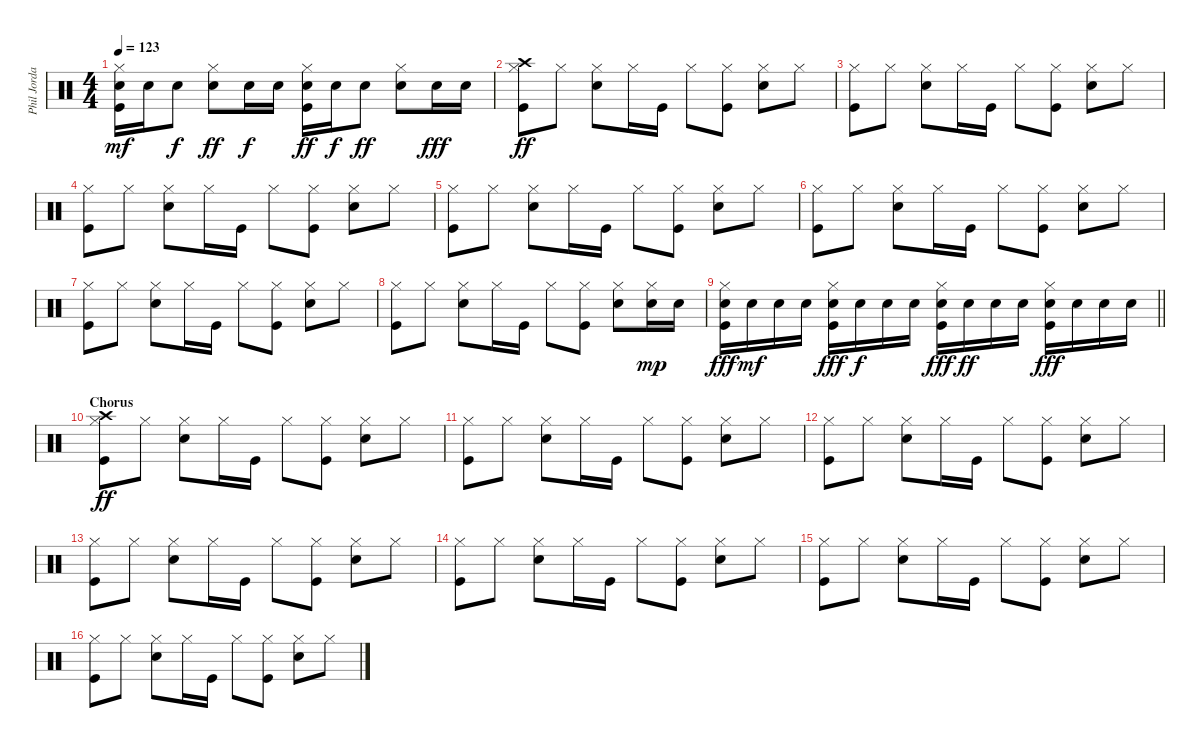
\track ("Phil Jordan" "Phil Jorda") {instrument percussion}
\staff {score}
\articulation defaults
\ts (4 4)
\tempo 123
\clef neutral
\ks c
("Hi-Hat (closed)" "Snare (hit) 2" "Kick (hit)").16{dy mf} "Snare (hit) 2".16 "Snare (hit) 2".8{dy f} ("Hi-Hat (closed)" "Snare (hit) 2").8{dy ff} "Snare (hit) 2".16{dy f} "Snare (hit) 2".16 ("Hi-Hat (closed)" "Snare (hit) 2" "Kick (hit)").16{dy ff} "Snare (hit) 2".16{dy f} "Snare (hit) 2".8{dy ff} ("Hi-Hat (closed)" "Snare (hit) 2").8 "Snare (hit) 2".16{dy fff} "Snare (hit) 2".16 |
("Crash high (hit)" "Hi-Hat (closed)" "Kick (hit)").8{dy ff} "Hi-Hat (closed)".8 ("Hi-Hat (closed)" "Snare (hit) 2").8 "Hi-Hat (closed)".16 "Kick (hit)".16 "Hi-Hat (closed)".8 ("Hi-Hat (closed)" "Kick (hit)").8 ("Hi-Hat (closed)" "Snare (hit) 2").8 "Hi-Hat (closed)".8 |
("Hi-Hat (closed)" "Kick (hit)").8 "Hi-Hat (closed)".8 ("Hi-Hat (closed)" "Snare (hit) 2").8 "Hi-Hat (closed)".16 "Kick (hit)".16 "Hi-Hat (closed)".8 ("Hi-Hat (closed)" "Kick (hit)").8 ("Hi-Hat (closed)" "Snare (hit) 2").8 "Hi-Hat (closed)".8 |
("Hi-Hat (closed)" "Kick (hit)").8 "Hi-Hat (closed)".8 ("Hi-Hat (closed)" "Snare (hit) 2").8 "Hi-Hat (closed)".16 "Kick (hit)".16 "Hi-Hat (closed)".8 ("Hi-Hat (closed)" "Kick (hit)").8 ("Hi-Hat (closed)" "Snare (hit) 2").8 "Hi-Hat (closed)".8 |
("Hi-Hat (closed)" "Kick (hit)").8 "Hi-Hat (closed)".8 ("Hi-Hat (closed)" "Snare (hit) 2").8 "Hi-Hat (closed)".16 "Kick (hit)".16 "Hi-Hat (closed)".8 ("Hi-Hat (closed)" "Kick (hit)").8 ("Hi-Hat (closed)" "Snare (hit) 2").8 "Hi-Hat (closed)".8 |
("Hi-Hat (closed)" "Kick (hit)").8 "Hi-Hat (closed)".8 ("Hi-Hat (closed)" "Snare (hit) 2").8 "Hi-Hat (closed)".16 "Kick (hit)".16 "Hi-Hat (closed)".8 ("Hi-Hat (closed)" "Kick (hit)").8 ("Hi-Hat (closed)" "Snare (hit) 2").8 "Hi-Hat (closed)".8 |
("Hi-Hat (closed)" "Kick (hit)").8 "Hi-Hat (closed)".8 ("Hi-Hat (closed)" "Snare (hit) 2").8 "Hi-Hat (closed)".16 "Kick (hit)".16 "Hi-Hat (closed)".8 ("Hi-Hat (closed)" "Kick (hit)").8 ("Hi-Hat (closed)" "Snare (hit) 2").8 "Hi-Hat (closed)".8 |
("Hi-Hat (closed)" "Kick (hit)").8 "Hi-Hat (closed)".8 ("Hi-Hat (closed)" "Snare (hit) 2").8 "Hi-Hat (closed)".16 "Kick (hit)".16 "Hi-Hat (closed)".8 ("Hi-Hat (closed)" "Kick (hit)").8 ("Hi-Hat (closed)" "Snare (hit) 2").8 ("Hi-Hat (closed)" "Snare (hit) 2").16{dy mp} "Snare (hit) 2".16 |
\barLineRight lightlight
("Hi-Hat (closed)" "Snare (hit) 2" "Kick (hit)").16{dy fff} "Snare (hit) 2".16{dy mf} "Snare (hit) 2".16 "Snare (hit) 2".16 ("Hi-Hat (closed)" "Snare (hit) 2" "Kick (hit)").16{dy fff} "Snare (hit) 2".16{dy f} "Snare (hit) 2".16 "Snare (hit) 2".16 ("Hi-Hat (closed)" "Snare (hit) 2" "Kick (hit)").16{dy fff} "Snare (hit) 2".16{dy ff} "Snare (hit) 2".16 "Snare (hit) 2".16 ("Hi-Hat (closed)" "Snare (hit) 2" "Kick (hit)").16{dy fff} "Snare (hit) 2".16 "Snare (hit) 2".16 "Snare (hit) 2".16 |
\section ("" "Chorus")
("Crash high (hit)" "Hi-Hat (closed)" "Kick (hit)").8{dy ff} "Hi-Hat (closed)".8 ("Hi-Hat (closed)" "Snare (hit) 2").8 "Hi-Hat (closed)".16 "Kick (hit)".16 "Hi-Hat (closed)".8 ("Hi-Hat (closed)" "Kick (hit)").8 ("Hi-Hat (closed)" "Snare (hit) 2").8 "Hi-Hat (closed)".8 |
("Hi-Hat (closed)" "Kick (hit)").8 "Hi-Hat (closed)".8 ("Hi-Hat (closed)" "Snare (hit) 2").8 "Hi-Hat (closed)".16 "Kick (hit)".16 "Hi-Hat (closed)".8 ("Hi-Hat (closed)" "Kick (hit)").8 ("Hi-Hat (closed)" "Snare (hit) 2").8 "Hi-Hat (closed)".8 |
("Hi-Hat (closed)" "Kick (hit)").8 "Hi-Hat (closed)".8 ("Hi-Hat (closed)" "Snare (hit) 2").8 "Hi-Hat (closed)".16 "Kick (hit)".16 "Hi-Hat (closed)".8 ("Hi-Hat (closed)" "Kick (hit)").8 ("Hi-Hat (closed)" "Snare (hit) 2").8 "Hi-Hat (closed)".8 |
("Hi-Hat (closed)" "Kick (hit)").8 "Hi-Hat (closed)".8 ("Hi-Hat (closed)" "Snare (hit) 2").8 "Hi-Hat (closed)".16 "Kick (hit)".16 "Hi-Hat (closed)".8 ("Hi-Hat (closed)" "Kick (hit)").8 ("Hi-Hat (closed)" "Snare (hit) 2").8 "Hi-Hat (closed)".8 |
("Hi-Hat (closed)" "Kick (hit)").8 "Hi-Hat (closed)".8 ("Hi-Hat (closed)" "Snare (hit) 2").8 "Hi-Hat (closed)".16 "Kick (hit)".16 "Hi-Hat (closed)".8 ("Hi-Hat (closed)" "Kick (hit)").8 ("Hi-Hat (closed)" "Snare (hit) 2").8 "Hi-Hat (closed)".8 |
("Hi-Hat (closed)" "Kick (hit)").8 "Hi-Hat (closed)".8 ("Hi-Hat (closed)" "Snare (hit) 2").8 "Hi-Hat (closed)".16 "Kick (hit)".16 "Hi-Hat (closed)".8 ("Hi-Hat (closed)" "Kick (hit)").8 ("Hi-Hat (closed)" "Snare (hit) 2").8 "Hi-Hat (closed)".8 |
("Hi-Hat (closed)" "Kick (hit)").8 "Hi-Hat (closed)".8 ("Hi-Hat (closed)" "Snare (hit) 2").8 "Hi-Hat (closed)".16 "Kick (hit)".16 "Hi-Hat (closed)".8 ("Hi-Hat (closed)" "Kick (hit)").8 ("Hi-Hat (closed)" "Snare (hit) 2").8 "Hi-Hat (closed)".8
